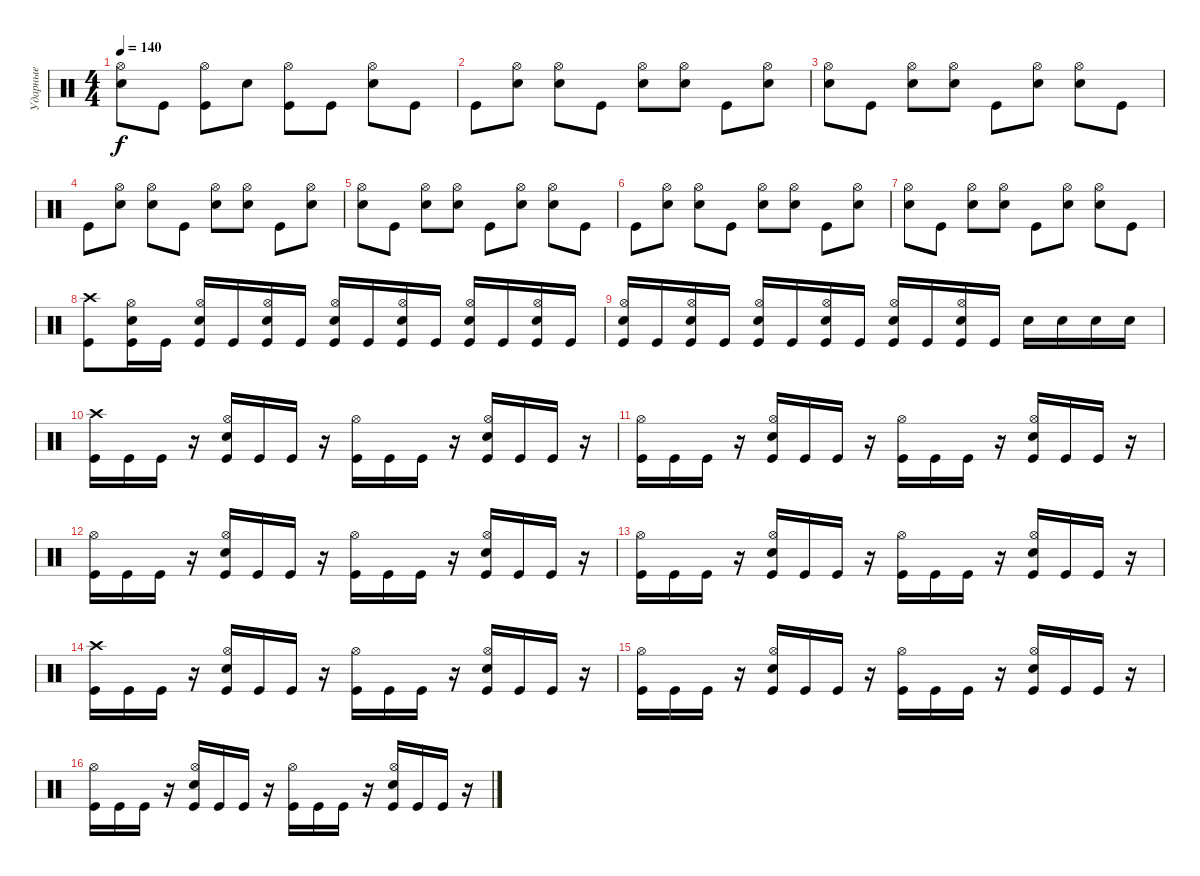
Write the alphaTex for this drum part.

\track ("Ударные" "Ударные") {instrument percussion}
\staff {score}
\articulation defaults
\ts (4 4)
\tempo 140
\clef neutral
\ks c
("Snare (hit) 2" "Hi-Hat (open)").8{dy f} "Kick (hit)".8 ("Kick (hit)" "Hi-Hat (open)").8 "Snare (hit) 2".8 ("Kick (hit)" "Hi-Hat (open)").8 "Kick (hit)".8 ("Snare (hit) 2" "Hi-Hat (open)").8 "Kick (hit)".8 |
"Kick (hit)".8 ("Snare (hit) 2" "Hi-Hat (open)").8 ("Snare (hit) 2" "Hi-Hat (open)").8 "Kick (hit)".8 ("Snare (hit) 2" "Hi-Hat (open)").8 ("Snare (hit) 2" "Hi-Hat (open)").8 "Kick (hit)".8 ("Snare (hit) 2" "Hi-Hat (open)").8 |
("Snare (hit) 2" "Hi-Hat (open)").8 "Kick (hit)".8 ("Snare (hit) 2" "Hi-Hat (open)").8 ("Snare (hit) 2" "Hi-Hat (open)").8 "Kick (hit)".8 ("Snare (hit) 2" "Hi-Hat (open)").8 ("Snare (hit) 2" "Hi-Hat (open)").8 "Kick (hit)".8 |
"Kick (hit)".8 ("Snare (hit) 2" "Hi-Hat (open)").8 ("Snare (hit) 2" "Hi-Hat (open)").8 "Kick (hit)".8 ("Snare (hit) 2" "Hi-Hat (open)").8 ("Snare (hit) 2" "Hi-Hat (open)").8 "Kick (hit)".8 ("Snare (hit) 2" "Hi-Hat (open)").8 |
("Snare (hit) 2" "Hi-Hat (open)").8 "Kick (hit)".8 ("Snare (hit) 2" "Hi-Hat (open)").8 ("Snare (hit) 2" "Hi-Hat (open)").8 "Kick (hit)".8 ("Snare (hit) 2" "Hi-Hat (open)").8 ("Snare (hit) 2" "Hi-Hat (open)").8 "Kick (hit)".8 |
"Kick (hit)".8 ("Snare (hit) 2" "Hi-Hat (open)").8 ("Snare (hit) 2" "Hi-Hat (open)").8 "Kick (hit)".8 ("Snare (hit) 2" "Hi-Hat (open)").8 ("Snare (hit) 2" "Hi-Hat (open)").8 "Kick (hit)".8 ("Snare (hit) 2" "Hi-Hat (open)").8 |
("Snare (hit) 2" "Hi-Hat (open)").8 "Kick (hit)".8 ("Snare (hit) 2" "Hi-Hat (open)").8 ("Snare (hit) 2" "Hi-Hat (open)").8 "Kick (hit)".8 ("Snare (hit) 2" "Hi-Hat (open)").8 ("Snare (hit) 2" "Hi-Hat (open)").8 "Kick (hit)".8 |
("Kick (hit)" "Crash high (hit)").8 ("Snare (hit) 2" "Kick (hit)" "Hi-Hat (open)").16 "Kick (hit)".16 ("Snare (hit) 2" "Kick (hit)" "Hi-Hat (open)").16 "Kick (hit)".16 ("Kick (hit)" "Snare (hit) 2" "Hi-Hat (open)").16 "Kick (hit)".16 ("Snare (hit) 2" "Kick (hit)" "Hi-Hat (open)").16 "Kick (hit)".16 ("Snare (hit) 2" "Kick (hit)" "Hi-Hat (open)").16 "Kick (hit)".16 ("Kick (hit)" "Snare (hit) 2" "Hi-Hat (open)").16 "Kick (hit)".16 ("Snare (hit) 2" "Kick (hit)" "Hi-Hat (open)").16 "Kick (hit)".16 |
("Kick (hit)" "Snare (hit) 2" "Hi-Hat (open)").16 "Kick (hit)".16 ("Snare (hit) 2" "Kick (hit)" "Hi-Hat (open)").16 "Kick (hit)".16 ("Snare (hit) 2" "Kick (hit)" "Hi-Hat (open)").16 "Kick (hit)".16 ("Kick (hit)" "Snare (hit) 2" "Hi-Hat (open)").16 "Kick (hit)".16 ("Snare (hit) 2" "Kick (hit)" "Hi-Hat (open)").16 "Kick (hit)".16 ("Snare (hit) 2" "Kick (hit)" "Hi-Hat (open)").16 "Kick (hit)".16 "Snare (hit) 2".16 "Snare (hit) 2".16 "Snare (hit) 2".16 "Snare (hit) 2".16 |
("Kick (hit)" "Crash high (hit)").16 "Kick (hit)".16 "Kick (hit)".16 r.16 ("Kick (hit)" "Snare (hit) 2" "Hi-Hat (open)").16 "Kick (hit)".16 "Kick (hit)".16 r.16 ("Kick (hit)" "Hi-Hat (open)").16 "Kick (hit)".16 "Kick (hit)".16 r.16 ("Kick (hit)" "Snare (hit) 2" "Hi-Hat (open)").16 "Kick (hit)".16 "Kick (hit)".16 r.16 |
("Kick (hit)" "Hi-Hat (open)").16 "Kick (hit)".16 "Kick (hit)".16 r.16 ("Kick (hit)" "Snare (hit) 2" "Hi-Hat (open)").16 "Kick (hit)".16 "Kick (hit)".16 r.16 ("Kick (hit)" "Hi-Hat (open)").16 "Kick (hit)".16 "Kick (hit)".16 r.16 ("Kick (hit)" "Snare (hit) 2" "Hi-Hat (open)").16 "Kick (hit)".16 "Kick (hit)".16 r.16 |
("Kick (hit)" "Hi-Hat (open)").16 "Kick (hit)".16 "Kick (hit)".16 r.16 ("Kick (hit)" "Snare (hit) 2" "Hi-Hat (open)").16 "Kick (hit)".16 "Kick (hit)".16 r.16 ("Kick (hit)" "Hi-Hat (open)").16 "Kick (hit)".16 "Kick (hit)".16 r.16 ("Kick (hit)" "Snare (hit) 2" "Hi-Hat (open)").16 "Kick (hit)".16 "Kick (hit)".16 r.16 |
("Kick (hit)" "Hi-Hat (open)").16 "Kick (hit)".16 "Kick (hit)".16 r.16 ("Kick (hit)" "Snare (hit) 2" "Hi-Hat (open)").16 "Kick (hit)".16 "Kick (hit)".16 r.16 ("Kick (hit)" "Hi-Hat (open)").16 "Kick (hit)".16 "Kick (hit)".16 r.16 ("Kick (hit)" "Snare (hit) 2" "Hi-Hat (open)").16 "Kick (hit)".16 "Kick (hit)".16 r.16 |
("Kick (hit)" "Crash high (hit)").16 "Kick (hit)".16 "Kick (hit)".16 r.16 ("Kick (hit)" "Snare (hit) 2" "Hi-Hat (open)").16 "Kick (hit)".16 "Kick (hit)".16 r.16 ("Kick (hit)" "Hi-Hat (open)").16 "Kick (hit)".16 "Kick (hit)".16 r.16 ("Kick (hit)" "Snare (hit) 2" "Hi-Hat (open)").16 "Kick (hit)".16 "Kick (hit)".16 r.16 |
("Kick (hit)" "Hi-Hat (open)").16 "Kick (hit)".16 "Kick (hit)".16 r.16 ("Kick (hit)" "Snare (hit) 2" "Hi-Hat (open)").16 "Kick (hit)".16 "Kick (hit)".16 r.16 ("Kick (hit)" "Hi-Hat (open)").16 "Kick (hit)".16 "Kick (hit)".16 r.16 ("Kick (hit)" "Snare (hit) 2" "Hi-Hat (open)").16 "Kick (hit)".16 "Kick (hit)".16 r.16 |
("Kick (hit)" "Hi-Hat (open)").16 "Kick (hit)".16 "Kick (hit)".16 r.16 ("Kick (hit)" "Snare (hit) 2" "Hi-Hat (open)").16 "Kick (hit)".16 "Kick (hit)".16 r.16 ("Kick (hit)" "Hi-Hat (open)").16 "Kick (hit)".16 "Kick (hit)".16 r.16 ("Kick (hit)" "Snare (hit) 2" "Hi-Hat (open)").16 "Kick (hit)".16 "Kick (hit)".16 r.16
